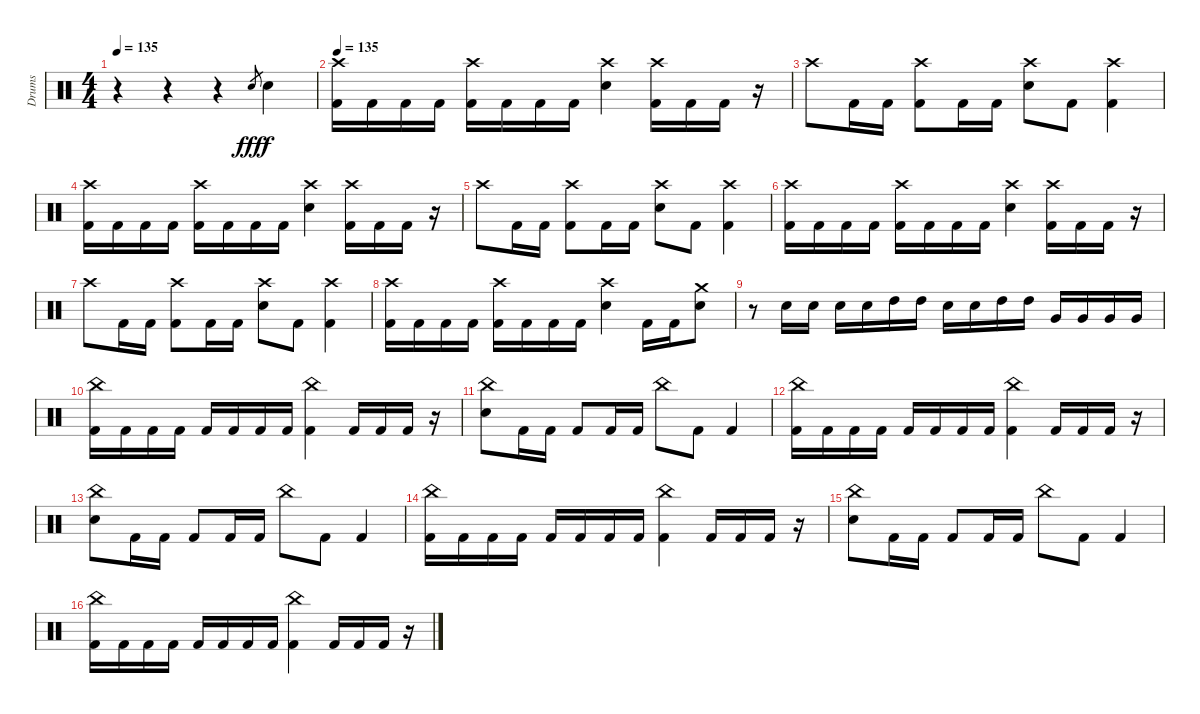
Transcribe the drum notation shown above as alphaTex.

\track ("Drums" "Drums") {instrument percussion}
\staff {score}
\articulation defaults
\ts (4 4)
\tempo 135
\clef neutral
\ks c
r.4{dy f} r.4 r.4 "Snare (hit) 2".8{gr dy fff} "Snare (hit) 2".4{dy f} |
\tempo 135
("Crash high (hit)" "Kick (hit) 2").16 "Kick (hit) 2".16 "Kick (hit) 2".16 "Kick (hit) 2".16 ("Crash high (hit)" "Kick (hit) 2").16 "Kick (hit) 2".16 "Kick (hit) 2".16 "Kick (hit) 2".16 ("Crash high (hit)" "Snare (hit) 2").4 ("Crash high (hit)" "Kick (hit) 2").16 "Kick (hit) 2".16 "Kick (hit) 2".16 r.16 |
"Crash high (hit)".8 "Kick (hit) 2".16 "Kick (hit) 2".16 ("Crash high (hit)" "Kick (hit) 2").8 "Kick (hit) 2".16 "Kick (hit) 2".16 ("Crash high (hit)" "Snare (hit) 2").8 "Kick (hit) 2".8 ("Crash high (hit)" "Kick (hit) 2").4 |
("Crash high (hit)" "Kick (hit) 2").16 "Kick (hit) 2".16 "Kick (hit) 2".16 "Kick (hit) 2".16 ("Crash high (hit)" "Kick (hit) 2").16 "Kick (hit) 2".16 "Kick (hit) 2".16 "Kick (hit) 2".16 ("Crash high (hit)" "Snare (hit) 2").4 ("Crash high (hit)" "Kick (hit) 2").16 "Kick (hit) 2".16 "Kick (hit) 2".16 r.16 |
"Crash high (hit)".8 "Kick (hit) 2".16 "Kick (hit) 2".16 ("Crash high (hit)" "Kick (hit) 2").8 "Kick (hit) 2".16 "Kick (hit) 2".16 ("Crash high (hit)" "Snare (hit) 2").8 "Kick (hit) 2".8 ("Crash high (hit)" "Kick (hit) 2").4 |
("Crash high (hit)" "Kick (hit) 2").16 "Kick (hit) 2".16 "Kick (hit) 2".16 "Kick (hit) 2".16 ("Crash high (hit)" "Kick (hit) 2").16 "Kick (hit) 2".16 "Kick (hit) 2".16 "Kick (hit) 2".16 ("Crash high (hit)" "Snare (hit) 2").4 ("Crash high (hit)" "Kick (hit) 2").16 "Kick (hit) 2".16 "Kick (hit) 2".16 r.16 |
"Crash high (hit)".8 "Kick (hit) 2".16 "Kick (hit) 2".16 ("Crash high (hit)" "Kick (hit) 2").8 "Kick (hit) 2".16 "Kick (hit) 2".16 ("Crash high (hit)" "Snare (hit) 2").8 "Kick (hit) 2".8 ("Crash high (hit)" "Kick (hit) 2").4 |
("Crash high (hit)" "Kick (hit) 2").16 "Kick (hit) 2".16 "Kick (hit) 2".16 "Kick (hit) 2".16 ("Crash high (hit)" "Kick (hit) 2").16 "Kick (hit) 2".16 "Kick (hit) 2".16 "Kick (hit) 2".16 ("Crash high (hit)" "Snare (hit) 2").4 "Kick (hit) 2".16 "Kick (hit) 2".16 ("Crash medium (hit)" "Snare (hit) 2").8 |
r.8 "Snare (hit) 2".16 "Snare (hit) 2".16 "Snare (hit) 2".16 "Snare (hit) 2".16 "High Tom (hit)".16 "High Tom (hit)".16 "Snare (hit) 2".16 "Snare (hit) 2".16 "High Tom (hit)".16 "High Tom (hit)".16 "Very Low Tom (hit)".16 "Very Low Tom (hit)".16 "Very Low Tom (hit)".16 "Very Low Tom (hit)".16 |
("China (hit)" "Kick (hit) 2").16 "Kick (hit) 2".16 "Kick (hit) 2".16 "Kick (hit) 2".16 "Kick (hit) 2".16 "Kick (hit) 2".16 "Kick (hit) 2".16 "Kick (hit) 2".16 ("China (hit)" "Kick (hit) 2").4 "Kick (hit) 2".16 "Kick (hit) 2".16 "Kick (hit) 2".16 r.16 |
("China (hit)" "Snare (hit) 2").8 "Kick (hit) 2".16 "Kick (hit) 2".16 "Kick (hit) 2".8 "Kick (hit) 2".16 "Kick (hit) 2".16 "China (hit)".8 "Kick (hit) 2".8 "Kick (hit) 2".4 |
("China (hit)" "Kick (hit) 2").16 "Kick (hit) 2".16 "Kick (hit) 2".16 "Kick (hit) 2".16 "Kick (hit) 2".16 "Kick (hit) 2".16 "Kick (hit) 2".16 "Kick (hit) 2".16 ("China (hit)" "Kick (hit) 2").4 "Kick (hit) 2".16 "Kick (hit) 2".16 "Kick (hit) 2".16 r.16 |
("China (hit)" "Snare (hit) 2").8 "Kick (hit) 2".16 "Kick (hit) 2".16 "Kick (hit) 2".8 "Kick (hit) 2".16 "Kick (hit) 2".16 "China (hit)".8 "Kick (hit) 2".8 "Kick (hit) 2".4 |
("China (hit)" "Kick (hit) 2").16 "Kick (hit) 2".16 "Kick (hit) 2".16 "Kick (hit) 2".16 "Kick (hit) 2".16 "Kick (hit) 2".16 "Kick (hit) 2".16 "Kick (hit) 2".16 ("China (hit)" "Kick (hit) 2").4 "Kick (hit) 2".16 "Kick (hit) 2".16 "Kick (hit) 2".16 r.16 |
("China (hit)" "Snare (hit) 2").8 "Kick (hit) 2".16 "Kick (hit) 2".16 "Kick (hit) 2".8 "Kick (hit) 2".16 "Kick (hit) 2".16 "China (hit)".8 "Kick (hit) 2".8 "Kick (hit) 2".4 |
("China (hit)" "Kick (hit) 2").16 "Kick (hit) 2".16 "Kick (hit) 2".16 "Kick (hit) 2".16 "Kick (hit) 2".16 "Kick (hit) 2".16 "Kick (hit) 2".16 "Kick (hit) 2".16 ("China (hit)" "Kick (hit) 2").4 "Kick (hit) 2".16 "Kick (hit) 2".16 "Kick (hit) 2".16 r.16
